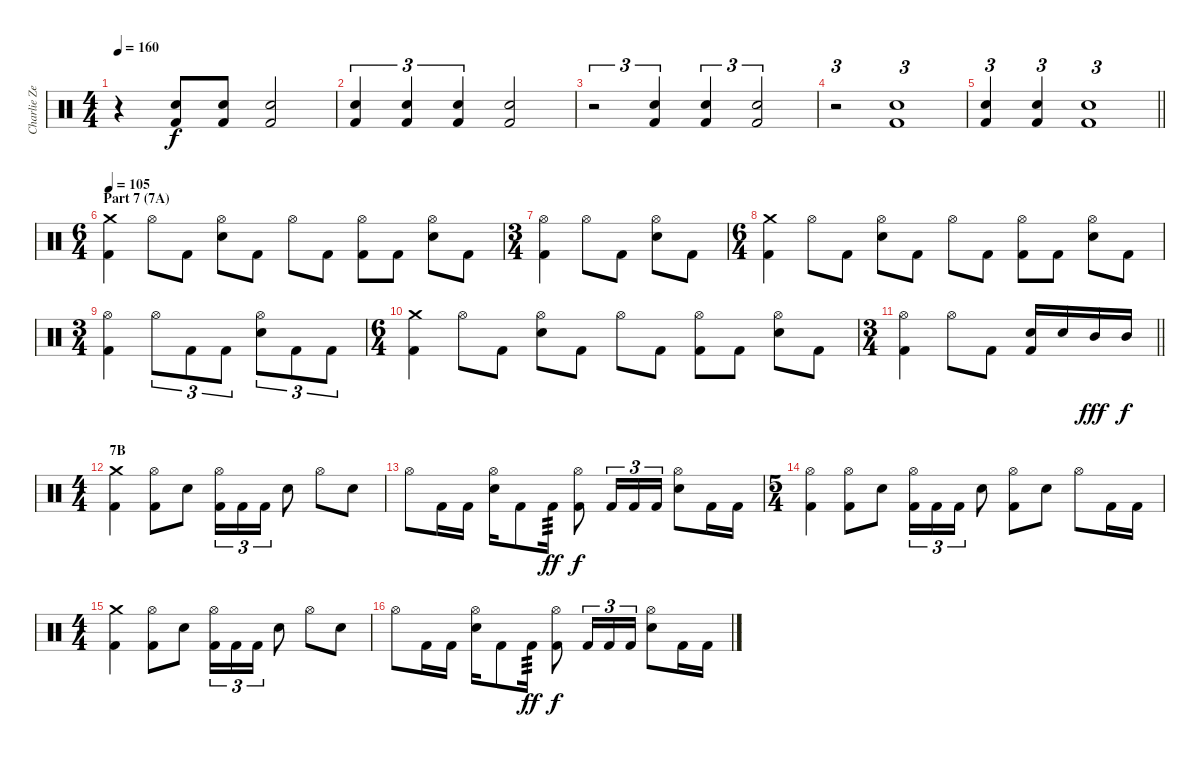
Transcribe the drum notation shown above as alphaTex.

\track ("Charlie Zeleny - Drums" "Charlie Ze") {instrument percussion}
\staff {score}
\articulation defaults
\ts (4 4)
\tempo 160
\clef neutral
\ks c
r.4{dy f} ("Electric Snare (hit)" "Kick (hit) 2").8 ("Electric Snare (hit)" "Kick (hit) 2").8 ("Electric Snare (hit)" "Kick (hit) 2").2 |
("Electric Snare (hit)" "Kick (hit) 2").4{tu (3 2)} ("Electric Snare (hit)" "Kick (hit) 2").4{tu (3 2)} ("Electric Snare (hit)" "Kick (hit) 2").4{tu (3 2)} ("Electric Snare (hit)" "Kick (hit) 2").2 |
r.2{tu (3 2)} ("Electric Snare (hit)" "Kick (hit) 2").4{tu (3 2)} ("Electric Snare (hit)" "Kick (hit) 2").4{tu (3 2)} ("Electric Snare (hit)" "Kick (hit) 2").2{tu (3 2)} |
r.2{tu (3 2)} ("Electric Snare (hit)" "Kick (hit) 2").1{tu (3 2)} |
\barLineRight lightlight
("Electric Snare (hit)" "Kick (hit) 2").4{tu (3 2)} ("Electric Snare (hit)" "Kick (hit) 2").4{tu (3 2)} ("Electric Snare (hit)" "Kick (hit) 2").1{tu (3 2)} |
\ts (6 4)
\section ("" "Part 7 (7A)")
\tempo 105
("Crash medium (hit)" "Kick (hit) 2").4 "Hi-Hat (open)".8 "Kick (hit) 2".8 ("Hi-Hat (open)" "Electric Snare (hit)").8 "Kick (hit) 2".8 "Hi-Hat (open)".8 "Kick (hit) 2".8 ("Hi-Hat (open)" "Kick (hit) 2").8 "Kick (hit) 2".8 ("Hi-Hat (open)" "Electric Snare (hit)").8 "Kick (hit) 2".8 |
\ts (3 4)
("Hi-Hat (open)" "Kick (hit) 2").4 "Hi-Hat (open)".8 "Kick (hit) 2".8 ("Hi-Hat (open)" "Electric Snare (hit)").8 "Kick (hit) 2".8 |
\ts (6 4)
("Crash medium (hit)" "Kick (hit) 2").4 "Hi-Hat (open)".8 "Kick (hit) 2".8 ("Hi-Hat (open)" "Electric Snare (hit)").8 "Kick (hit) 2".8 "Hi-Hat (open)".8 "Kick (hit) 2".8 ("Hi-Hat (open)" "Kick (hit) 2").8 "Kick (hit) 2".8 ("Hi-Hat (open)" "Electric Snare (hit)").8 "Kick (hit) 2".8 |
\ts (3 4)
("Hi-Hat (open)" "Kick (hit) 2").4 "Hi-Hat (open)".8{tu (3 2)} "Kick (hit) 2".8{tu (3 2)} "Kick (hit) 2".8{tu (3 2)} ("Hi-Hat (open)" "Electric Snare (hit)").8{tu (3 2)} "Kick (hit) 2".8{tu (3 2)} "Kick (hit) 2".8{tu (3 2)} |
\ts (6 4)
("Crash medium (hit)" "Kick (hit) 2").4 "Hi-Hat (open)".8 "Kick (hit) 2".8 ("Hi-Hat (open)" "Electric Snare (hit)").8 "Kick (hit) 2".8 "Hi-Hat (open)".8 "Kick (hit) 2".8 ("Hi-Hat (open)" "Kick (hit) 2").8 "Kick (hit) 2".8 ("Hi-Hat (open)" "Electric Snare (hit)").8 "Kick (hit) 2".8 |
\ts (3 4)
\barLineRight lightlight
("Hi-Hat (open)" "Kick (hit) 2").4 "Hi-Hat (open)".8 "Kick (hit) 2".8 ("Electric Snare (hit)" "Kick (hit) 2").16{bd 480} "Electric Snare (hit)".16 "Mid Tom (hit)".16{dy fff} "Mid Tom (hit)".16{dy f} |
\ts (4 4)
\section ("" "7B")
("Crash medium (hit)" "Kick (hit) 2").4 ("Hi-Hat (open)" "Kick (hit) 2").8 "Electric Snare (hit)".8 ("Hi-Hat (open)" "Kick (hit) 2").16{tu (3 2)} "Kick (hit) 2".16{tu (3 2)} "Kick (hit) 2".16{tu (3 2)} "Electric Snare (hit)".8 "Hi-Hat (open)".8 "Electric Snare (hit)".8 |
"Hi-Hat (open)".8 "Kick (hit) 2".16 "Kick (hit) 2".16 ("Hi-Hat (open)" "Electric Snare (hit)").16 "Kick (hit) 2".8 "Kick (hit) 2".16{tp 3 dy ff} ("Hi-Hat (open)" "Kick (hit) 2").8{dy f} "Kick (hit) 2".16{tu (3 2)} "Kick (hit) 2".16{tu (3 2)} "Kick (hit) 2".16{tu (3 2)} ("Hi-Hat (open)" "Electric Snare (hit)").8 "Kick (hit) 2".16 "Kick (hit) 2".16 |
\ts (5 4)
("Hi-Hat (open)" "Kick (hit) 2").4 ("Hi-Hat (open)" "Kick (hit) 2").8 "Electric Snare (hit)".8 ("Hi-Hat (open)" "Kick (hit) 2").16{tu (3 2)} "Kick (hit) 2".16{tu (3 2)} "Kick (hit) 2".16{tu (3 2)} "Electric Snare (hit)".8 ("Hi-Hat (open)" "Kick (hit) 2").8 "Electric Snare (hit)".8 "Hi-Hat (open)".8 "Kick (hit) 2".16 "Kick (hit) 2".16 |
\ts (4 4)
("Crash medium (hit)" "Kick (hit) 2").4 ("Hi-Hat (open)" "Kick (hit) 2").8 "Electric Snare (hit)".8 ("Hi-Hat (open)" "Kick (hit) 2").16{tu (3 2)} "Kick (hit) 2".16{tu (3 2)} "Kick (hit) 2".16{tu (3 2)} "Electric Snare (hit)".8 "Hi-Hat (open)".8 "Electric Snare (hit)".8 |
"Hi-Hat (open)".8 "Kick (hit) 2".16 "Kick (hit) 2".16 ("Hi-Hat (open)" "Electric Snare (hit)").16 "Kick (hit) 2".8 "Kick (hit) 2".16{tp 3 dy ff} ("Hi-Hat (open)" "Kick (hit) 2").8{dy f} "Kick (hit) 2".16{tu (3 2)} "Kick (hit) 2".16{tu (3 2)} "Kick (hit) 2".16{tu (3 2)} ("Hi-Hat (open)" "Electric Snare (hit)").8 "Kick (hit) 2".16 "Kick (hit) 2".16
